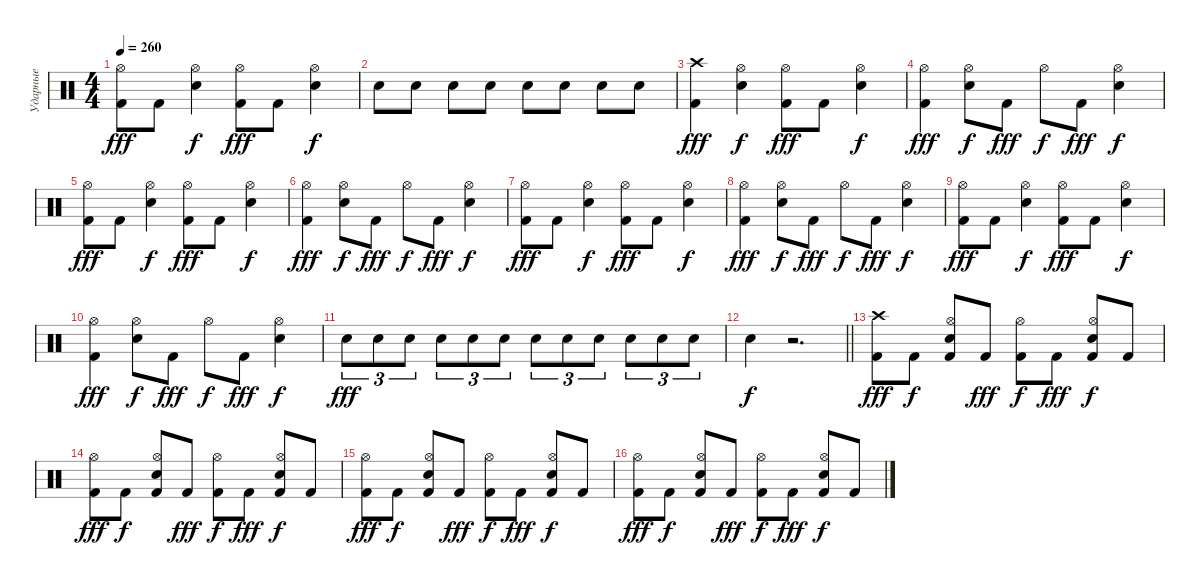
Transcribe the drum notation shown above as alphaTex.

\track ("Ударные" "Ударные") {instrument percussion}
\staff {score}
\articulation defaults
\ts (4 4)
\tempo 260
\clef neutral
\ks c
("Kick (hit) 2" "Hi-Hat (open)").8{dy fff} "Kick (hit) 2".8 ("Snare (hit) 2" "Hi-Hat (open)").4{dy f} ("Kick (hit) 2" "Hi-Hat (open)").8{dy fff} "Kick (hit) 2".8 ("Snare (hit) 2" "Hi-Hat (open)").4{dy f} |
"Snare (hit) 2".8 "Snare (hit) 2".8 "Snare (hit) 2".8 "Snare (hit) 2".8 "Electric Snare (hit)".8 "Electric Snare (hit)".8 "Electric Snare (hit)".8 "Electric Snare (hit)".8 |
("Kick (hit) 2" "Crash high (hit)").4{dy fff} ("Snare (hit) 2" "Hi-Hat (open)").4{dy f} ("Kick (hit) 2" "Hi-Hat (open)").8{dy fff} "Kick (hit) 2".8 ("Snare (hit) 2" "Hi-Hat (open)").4{dy f} |
("Kick (hit) 2" "Hi-Hat (open)").4{dy fff} ("Snare (hit) 2" "Hi-Hat (open)").8{dy f} "Kick (hit) 2".8{dy fff} "Hi-Hat (open)".8{dy f} "Kick (hit) 2".8{dy fff} ("Snare (hit) 2" "Hi-Hat (open)").4{dy f} |
("Kick (hit) 2" "Hi-Hat (open)").8{dy fff} "Kick (hit) 2".8 ("Snare (hit) 2" "Hi-Hat (open)").4{dy f} ("Kick (hit) 2" "Hi-Hat (open)").8{dy fff} "Kick (hit) 2".8 ("Snare (hit) 2" "Hi-Hat (open)").4{dy f} |
("Kick (hit) 2" "Hi-Hat (open)").4{dy fff} ("Snare (hit) 2" "Hi-Hat (open)").8{dy f} "Kick (hit) 2".8{dy fff} "Hi-Hat (open)".8{dy f} "Kick (hit) 2".8{dy fff} ("Snare (hit) 2" "Hi-Hat (open)").4{dy f} |
("Kick (hit) 2" "Hi-Hat (open)").8{dy fff} "Kick (hit) 2".8 ("Snare (hit) 2" "Hi-Hat (open)").4{dy f} ("Kick (hit) 2" "Hi-Hat (open)").8{dy fff} "Kick (hit) 2".8 ("Snare (hit) 2" "Hi-Hat (open)").4{dy f} |
("Kick (hit) 2" "Hi-Hat (open)").4{dy fff} ("Snare (hit) 2" "Hi-Hat (open)").8{dy f} "Kick (hit) 2".8{dy fff} "Hi-Hat (open)".8{dy f} "Kick (hit) 2".8{dy fff} ("Snare (hit) 2" "Hi-Hat (open)").4{dy f} |
("Kick (hit) 2" "Hi-Hat (open)").8{dy fff} "Kick (hit) 2".8 ("Snare (hit) 2" "Hi-Hat (open)").4{dy f} ("Kick (hit) 2" "Hi-Hat (open)").8{dy fff} "Kick (hit) 2".8 ("Snare (hit) 2" "Hi-Hat (open)").4{dy f} |
("Kick (hit) 2" "Hi-Hat (open)").4{dy fff} ("Snare (hit) 2" "Hi-Hat (open)").8{dy f} "Kick (hit) 2".8{dy fff} "Hi-Hat (open)".8{dy f} "Kick (hit) 2".8{dy fff} ("Snare (hit) 2" "Hi-Hat (open)").4{dy f} |
"Electric Snare (hit)".8{tu (3 2) dy fff} "Electric Snare (hit)".8{tu (3 2)} "Electric Snare (hit)".8{tu (3 2)} "Electric Snare (hit)".8{tu (3 2)} "Electric Snare (hit)".8{tu (3 2)} "Electric Snare (hit)".8{tu (3 2)} "Electric Snare (hit)".8{tu (3 2)} "Electric Snare (hit)".8{tu (3 2)} "Electric Snare (hit)".8{tu (3 2)} "Electric Snare (hit)".8{tu (3 2)} "Electric Snare (hit)".8{tu (3 2)} "Electric Snare (hit)".8{tu (3 2)} |
\barLineRight lightlight "Snare (hit) 2".4{dy f}
r.2{d} |
("Kick (hit) 2" "Crash high (hit)").8{dy fff} "Kick (hit) 2".8{dy f} ("Kick (hit) 2" "Snare (hit) 2" "Hi-Hat (open)").8 "Kick (hit) 2".8{dy fff} ("Kick (hit) 2" "Hi-Hat (open)").8{dy f} "Kick (hit) 2".8{dy fff} ("Kick (hit) 2" "Snare (hit) 2" "Hi-Hat (open)").8{dy f} "Kick (hit) 2".8 |
("Kick (hit) 2" "Hi-Hat (open)").8{dy fff} "Kick (hit) 2".8{dy f} ("Kick (hit) 2" "Snare (hit) 2" "Hi-Hat (open)").8 "Kick (hit) 2".8{dy fff} ("Kick (hit) 2" "Hi-Hat (open)").8{dy f} "Kick (hit) 2".8{dy fff} ("Kick (hit) 2" "Snare (hit) 2" "Hi-Hat (open)").8{dy f} "Kick (hit) 2".8 |
("Kick (hit) 2" "Hi-Hat (open)").8{dy fff} "Kick (hit) 2".8{dy f} ("Kick (hit) 2" "Snare (hit) 2" "Hi-Hat (open)").8 "Kick (hit) 2".8{dy fff} ("Kick (hit) 2" "Hi-Hat (open)").8{dy f} "Kick (hit) 2".8{dy fff} ("Kick (hit) 2" "Snare (hit) 2" "Hi-Hat (open)").8{dy f} "Kick (hit) 2".8 |
("Kick (hit) 2" "Hi-Hat (open)").8{dy fff} "Kick (hit) 2".8{dy f} ("Kick (hit) 2" "Snare (hit) 2" "Hi-Hat (open)").8 "Kick (hit) 2".8{dy fff} ("Kick (hit) 2" "Hi-Hat (open)").8{dy f} "Kick (hit) 2".8{dy fff} ("Kick (hit) 2" "Snare (hit) 2" "Hi-Hat (open)").8{dy f} "Kick (hit) 2".8
